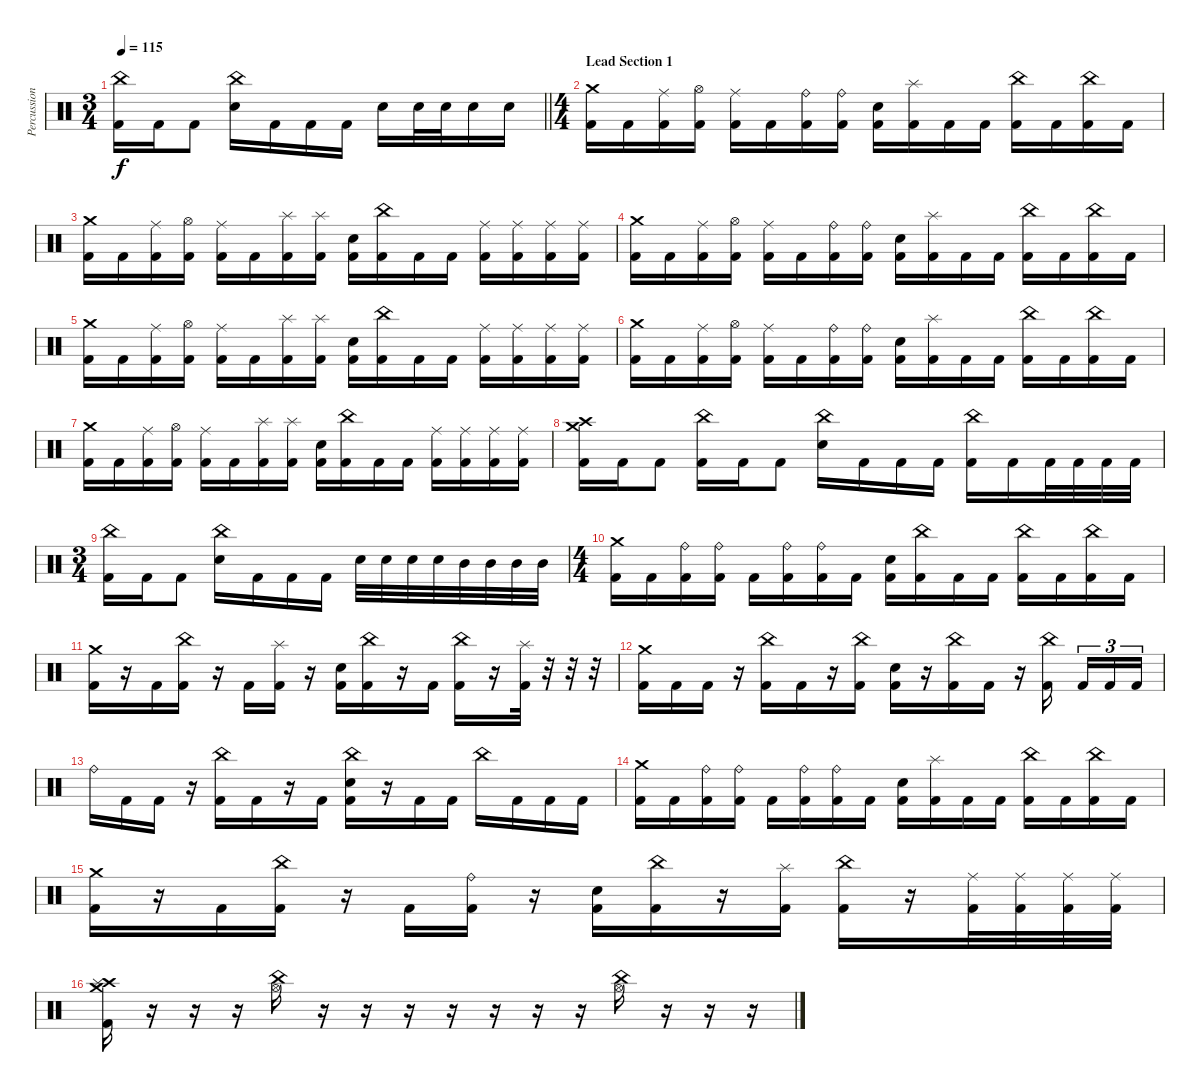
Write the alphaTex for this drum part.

\track ("Percussion" "Percussion") {instrument percussion}
\staff {score}
\articulation defaults
\ts (3 4)
\tempo 115
\clef neutral
\barLineRight lightlight
\ks c
("China (hit)" "Kick (hit) 2").16{dy f} "Kick (hit) 2".16 "Kick (hit) 2".8 ("China (hit)" "Electric Snare (hit)").16 "Kick (hit) 2".16 "Kick (hit) 2".16 "Kick (hit) 2".16 "Electric Snare (hit)".16 "Electric Snare (hit)".32 "Electric Snare (hit)".32 "Electric Snare (hit)".16 "Electric Snare (hit)".16 |
\ts (4 4)
\section ("" "Lead Section 1")
("Crash medium (hit)" "Kick (hit) 2").16 "Kick (hit) 2".16 ("Ride (middle)" "Kick (hit) 2").16 ("Hi-Hat (open)" "Kick (hit) 2").16 ("Ride (middle)" "Kick (hit) 2").16 "Kick (hit) 2".16 ("Ride (bell)" "Kick (hit) 2").16 ("Ride (bell)" "Kick (hit) 2").16 ("Electric Snare (hit)" "Kick (hit) 2").16 ("Splash (hit)" "Kick (hit) 2").16 "Kick (hit) 2".16 "Kick (hit) 2".16 ("China (hit)" "Kick (hit) 2").16 "Kick (hit) 2".16 ("China (hit)" "Kick (hit) 2").16 "Kick (hit) 2".16 |
("Crash medium (hit)" "Kick (hit) 2").16 "Kick (hit) 2".16 ("Ride (middle)" "Kick (hit) 2").16 ("Hi-Hat (open)" "Kick (hit) 2").16 ("Ride (middle)" "Kick (hit) 2").16 "Kick (hit) 2".16 ("Splash (hit)" "Kick (hit) 2").16 ("Splash (hit)" "Kick (hit) 2").16 ("Electric Snare (hit)" "Kick (hit) 2").16 ("China (hit)" "Kick (hit) 2").16 "Kick (hit) 2".16 "Kick (hit) 2".16 ("Ride (middle)" "Kick (hit) 2").16 ("Ride (middle)" "Kick (hit) 2").16 ("Ride (middle)" "Kick (hit) 2").16 ("Ride (middle)" "Kick (hit) 2").16 |
("Crash medium (hit)" "Kick (hit) 2").16 "Kick (hit) 2".16 ("Ride (middle)" "Kick (hit) 2").16 ("Hi-Hat (open)" "Kick (hit) 2").16 ("Ride (middle)" "Kick (hit) 2").16 "Kick (hit) 2".16 ("Ride (bell)" "Kick (hit) 2").16 ("Ride (bell)" "Kick (hit) 2").16 ("Electric Snare (hit)" "Kick (hit) 2").16 ("Splash (hit)" "Kick (hit) 2").16 "Kick (hit) 2".16 "Kick (hit) 2".16 ("China (hit)" "Kick (hit) 2").16 "Kick (hit) 2".16 ("China (hit)" "Kick (hit) 2").16 "Kick (hit) 2".16 |
("Crash medium (hit)" "Kick (hit) 2").16 "Kick (hit) 2".16 ("Ride (middle)" "Kick (hit) 2").16 ("Hi-Hat (open)" "Kick (hit) 2").16 ("Ride (middle)" "Kick (hit) 2").16 "Kick (hit) 2".16 ("Splash (hit)" "Kick (hit) 2").16 ("Splash (hit)" "Kick (hit) 2").16 ("Electric Snare (hit)" "Kick (hit) 2").16 ("China (hit)" "Kick (hit) 2").16 "Kick (hit) 2".16 "Kick (hit) 2".16 ("Ride (middle)" "Kick (hit) 2").16 ("Ride (middle)" "Kick (hit) 2").16 ("Ride (middle)" "Kick (hit) 2").16 ("Ride (middle)" "Kick (hit) 2").16 |
("Crash medium (hit)" "Kick (hit) 2").16 "Kick (hit) 2".16 ("Ride (middle)" "Kick (hit) 2").16 ("Hi-Hat (open)" "Kick (hit) 2").16 ("Ride (middle)" "Kick (hit) 2").16 "Kick (hit) 2".16 ("Ride (bell)" "Kick (hit) 2").16 ("Ride (bell)" "Kick (hit) 2").16 ("Electric Snare (hit)" "Kick (hit) 2").16 ("Splash (hit)" "Kick (hit) 2").16 "Kick (hit) 2".16 "Kick (hit) 2".16 ("China (hit)" "Kick (hit) 2").16 "Kick (hit) 2".16 ("China (hit)" "Kick (hit) 2").16 "Kick (hit) 2".16 |
("Crash medium (hit)" "Kick (hit) 2").16 "Kick (hit) 2".16 ("Ride (middle)" "Kick (hit) 2").16 ("Hi-Hat (open)" "Kick (hit) 2").16 ("Ride (middle)" "Kick (hit) 2").16 "Kick (hit) 2".16 ("Splash (hit)" "Kick (hit) 2").16 ("Splash (hit)" "Kick (hit) 2").16 ("Electric Snare (hit)" "Kick (hit) 2").16 ("China (hit)" "Kick (hit) 2").16 "Kick (hit) 2".16 "Kick (hit) 2".16 ("Ride (middle)" "Kick (hit) 2").16 ("Ride (middle)" "Kick (hit) 2").16 ("Ride (middle)" "Kick (hit) 2").16 ("Ride (middle)" "Kick (hit) 2").16 |
("Crash medium (hit)" "Crash high (hit)" "Kick (hit) 2").16 "Kick (hit) 2".16 "Kick (hit) 2".8 ("China (hit)" "Kick (hit) 2").16 "Kick (hit) 2".16 "Kick (hit) 2".8 ("China (hit)" "Electric Snare (hit)").16 "Kick (hit) 2".16 "Kick (hit) 2".16 "Kick (hit) 2".16 ("China (hit)" "Kick (hit) 2").16 "Kick (hit) 2".16 "Kick (hit) 2".32 "Kick (hit) 2".32 "Kick (hit) 2".32 "Kick (hit) 2".32 |
\ts (3 4)
("China (hit)" "Kick (hit) 2").16 "Kick (hit) 2".16 "Kick (hit) 2".8 ("China (hit)" "Electric Snare (hit)").16 "Kick (hit) 2".16 "Kick (hit) 2".16 "Kick (hit) 2".16 "Electric Snare (hit)".32 "Electric Snare (hit)".32 "Electric Snare (hit)".32 "Electric Snare (hit)".32 "Mid Tom (hit)".32 "Mid Tom (hit)".32 "Mid Tom (hit)".32 "Mid Tom (hit)".32 |
\ts (4 4)
("Crash medium (hit)" "Kick (hit) 2").16 "Kick (hit) 2".16 ("Ride (bell)" "Kick (hit) 2").16 ("Ride (bell)" "Kick (hit) 2").16 "Kick (hit) 2".16 ("Ride (bell)" "Kick (hit) 2").16 ("Ride (bell)" "Kick (hit) 2").16 "Kick (hit) 2".16 ("Electric Snare (hit)" "Kick (hit) 2").16 ("China (hit)" "Kick (hit) 2").16 "Kick (hit) 2".16 "Kick (hit) 2".16 ("China (hit)" "Kick (hit) 2").16 "Kick (hit) 2".16 ("China (hit)" "Kick (hit) 2").16 "Kick (hit) 2".16 |
("Crash medium (hit)" "Kick (hit) 2").16 r.16 "Kick (hit) 2".16 ("China (hit)" "Kick (hit) 2").16 r.16 "Kick (hit) 2".16 ("Splash (hit)" "Kick (hit) 2").16 r.16 ("Electric Snare (hit)" "Kick (hit) 2").16 ("China (hit)" "Kick (hit) 2").16 r.16 "Kick (hit) 2".16 ("China (hit)" "Kick (hit) 2").16 r.16 ("Splash (hit)" "Kick (hit) 2").32 r.32 r.32 r.32 |
("Crash medium (hit)" "Kick (hit) 2").16 "Kick (hit) 2".16 "Kick (hit) 2".16 r.16 ("China (hit)" "Kick (hit) 2").16 "Kick (hit) 2".16 r.16 ("China (hit)" "Kick (hit) 2").16 ("Electric Snare (hit)" "Kick (hit) 2").16 r.16 ("China (hit)" "Kick (hit) 2").16 "Kick (hit) 2".16 r.16 ("China (hit)" "Kick (hit) 2").16{beam splitsecondary} "Kick (hit) 2".16{tu (3 2)} "Kick (hit) 2".16{tu (3 2)} "Kick (hit) 2".16{tu (3 2)} |
"Ride (bell)".16 "Kick (hit) 2".16 "Kick (hit) 2".16 r.16 ("China (hit)" "Kick (hit) 2").16 "Kick (hit) 2".16 r.16 "Kick (hit) 2".16 ("China (hit)" "Electric Snare (hit)" "Kick (hit) 2").16 r.16 "Kick (hit) 2".16 "Kick (hit) 2".16 "China (hit)".16 "Kick (hit) 2".16 "Kick (hit) 2".16 "Kick (hit) 2".16 |
("Crash medium (hit)" "Kick (hit) 2").16 "Kick (hit) 2".16 ("Ride (bell)" "Kick (hit) 2").16 ("Ride (bell)" "Kick (hit) 2").16 "Kick (hit) 2".16 ("Ride (bell)" "Kick (hit) 2").16 ("Ride (bell)" "Kick (hit) 2").16 "Kick (hit) 2".16 ("Electric Snare (hit)" "Kick (hit) 2").16 ("Splash (hit)" "Kick (hit) 2").16 "Kick (hit) 2".16 "Kick (hit) 2".16 ("China (hit)" "Kick (hit) 2").16 "Kick (hit) 2".16 ("China (hit)" "Kick (hit) 2").16 "Kick (hit) 2".16 |
("Crash medium (hit)" "Kick (hit) 2").16 r.16 "Kick (hit) 2".16 ("China (hit)" "Kick (hit) 2").16 r.16 "Kick (hit) 2".16 ("Ride (bell)" "Kick (hit) 2").16 r.16 ("Electric Snare (hit)" "Kick (hit) 2").16 ("China (hit)" "Kick (hit) 2").16 r.16 ("Splash (hit)" "Kick (hit) 2").16 ("China (hit)" "Kick (hit) 2").16 r.16 ("Ride (middle)" "Kick (hit) 2").32 ("Ride (middle)" "Kick (hit) 2").32 ("Ride (middle)" "Kick (hit) 2").32 ("Ride (middle)" "Kick (hit) 2").32 |
("Crash high (hit)" "Crash medium (hit)" "Splash (hit)" "Kick (hit) 2").16 r.16 r.16 r.16 ("Hi-Hat (open)" "China (hit)").16 r.16 r.16 r.16 r.16 r.16 r.16 r.16 ("Hi-Hat (open)" "China (hit)").16 r.16 r.16 r.16
